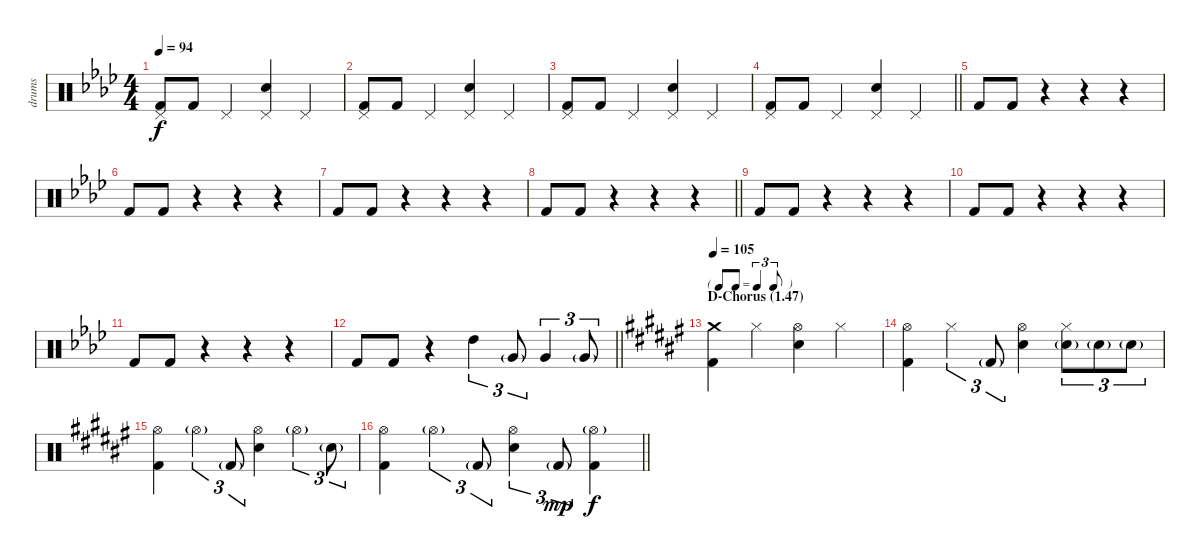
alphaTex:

\track ("drums" "drums") {instrument percussion}
\staff {score}
\articulation defaults
\ts (4 4)
\tempo 94
\clef neutral
\ks ab
("Pedal Hi-Hat (hit)" "Kick (hit) 2").8{dy f} "Kick (hit) 2".8 "Pedal Hi-Hat (hit)".4 ("Pedal Hi-Hat (hit)" "Electric Snare (hit)").4 "Pedal Hi-Hat (hit)".4 |
("Pedal Hi-Hat (hit)" "Kick (hit) 2").8 "Kick (hit) 2".8 "Pedal Hi-Hat (hit)".4 ("Pedal Hi-Hat (hit)" "Electric Snare (hit)").4 "Pedal Hi-Hat (hit)".4 |
("Pedal Hi-Hat (hit)" "Kick (hit) 2").8 "Kick (hit) 2".8 "Pedal Hi-Hat (hit)".4 ("Pedal Hi-Hat (hit)" "Electric Snare (hit)").4 "Pedal Hi-Hat (hit)".4 |
\barLineRight lightlight
("Pedal Hi-Hat (hit)" "Kick (hit) 2").8 "Kick (hit) 2".8 "Pedal Hi-Hat (hit)".4 ("Pedal Hi-Hat (hit)" "Electric Snare (hit)").4 "Pedal Hi-Hat (hit)".4 |
"Kick (hit) 2".8 "Kick (hit) 2".8 r.4 r.4 r.4 |
"Kick (hit) 2".8 "Kick (hit) 2".8 r.4 r.4 r.4 |
"Kick (hit) 2".8 "Kick (hit) 2".8 r.4 r.4 r.4 |
\barLineRight lightlight "Kick (hit) 2".8 "Kick (hit) 2".8
r.4 r.4 r.4 |
"Kick (hit) 2".8 "Kick (hit) 2".8 r.4 r.4 r.4 |
"Kick (hit) 2".8 "Kick (hit) 2".8 r.4 r.4 r.4 |
"Kick (hit) 2".8 "Kick (hit) 2".8 r.4 r.4 r.4 |
\barLineRight lightlight "Kick (hit) 2".8 "Kick (hit) 2".8
r.4 "High Tom (hit)".4{tu (3 2)} "Very Low Tom (hit)"{g}.8{tu (3 2)} "Very Low Tom (hit)".4{tu (3 2)} "Very Low Tom (hit)"{g}.8{tu (3 2)} |
\tf triplet8th
\section ("" "D-Chorus (1.47)")
\tempo 105
\ks f#
("Crash medium (hit)" "Kick (hit) 2").4 "Hi-Hat (closed)".4 ("Hi-Hat (open)" "Electric Snare (hit)").4 "Hi-Hat (closed)".4 |
\ks d#minor
("Hi-Hat (open)" "Kick (hit) 2").4 "Hi-Hat (closed)".4{tu (3 2)} "Kick (hit) 2"{g}.8{tu (3 2)} ("Hi-Hat (open)" "Electric Snare (hit)").4 ("Hi-Hat (closed)" "Electric Snare (hit)"{g}).8{tu (3 2)} "Electric Snare (hit)"{g}.8{tu (3 2)} "Electric Snare (hit)"{g}.8{tu (3 2)} |
("Hi-Hat (open)" "Kick (hit) 2").4 "Hi-Hat (open)"{g}.4{tu (3 2)} "Kick (hit) 2"{g}.8{tu (3 2)} ("Hi-Hat (open)" "Electric Snare (hit)").4 "Hi-Hat (open)"{g}.4{tu (3 2)} "Electric Snare (hit)"{g}.8{tu (3 2)} |
\barLineRight lightlight
("Hi-Hat (open)" "Kick (hit) 2").4 "Hi-Hat (open)"{g}.4{tu (3 2)} "Kick (hit) 2"{g}.8{tu (3 2)} ("Hi-Hat (open)" "Electric Snare (hit)").4{tu (3 2)} "Kick (hit) 2"{g}.8{tu (3 2) dy mp} ("Hi-Hat (open)"{g} "Kick (hit) 2").4{dy f}
